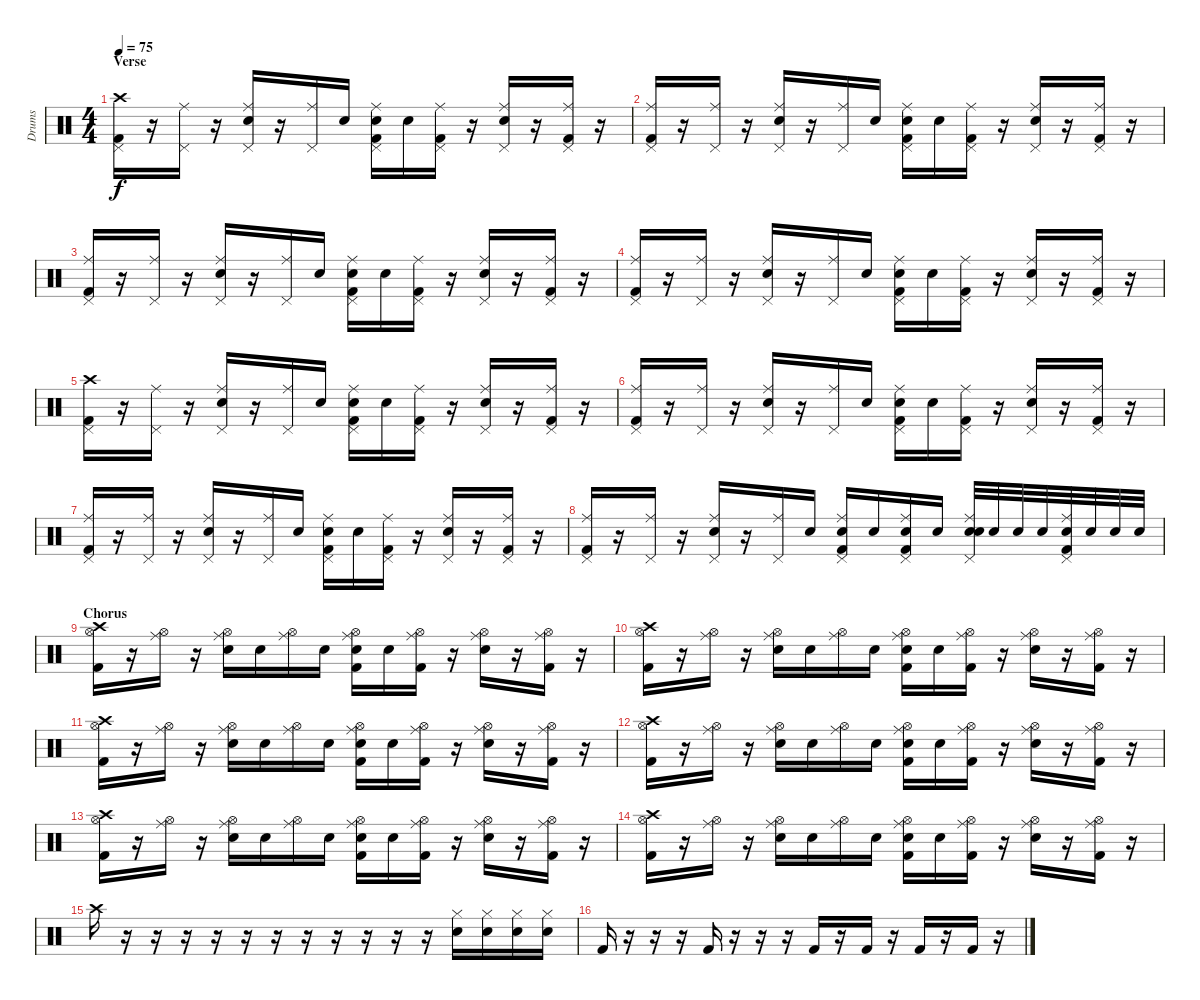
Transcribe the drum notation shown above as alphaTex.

\track ("Drums" "Drums") {instrument percussion}
\staff {score}
\articulation defaults
\ts (4 4)
\section ("" "Verse")
\tempo 75
\clef neutral
\ks c
("Crash high (hit)" "Kick (hit) 2" "Pedal Hi-Hat (hit)").16{dy f} r.16 ("Ride (middle)" "Pedal Hi-Hat (hit)").16 r.16 ("Ride (middle)" "Electric Snare (hit)" "Pedal Hi-Hat (hit)").16 r.16 ("Ride (middle)" "Pedal Hi-Hat (hit)").16 "Snare (hit) 2".16 ("Ride (middle)" "Electric Snare (hit)" "Kick (hit) 2" "Pedal Hi-Hat (hit)").16 "Electric Snare (hit)".16 ("Ride (middle)" "Kick (hit) 2" "Pedal Hi-Hat (hit)").16 r.16 ("Ride (middle)" "Electric Snare (hit)" "Pedal Hi-Hat (hit)").16 r.16 ("Ride (middle)" "Kick (hit) 2" "Pedal Hi-Hat (hit)").16 r.16 |
("Ride (middle)" "Kick (hit) 2" "Pedal Hi-Hat (hit)").16 r.16 ("Ride (middle)" "Pedal Hi-Hat (hit)").16 r.16 ("Ride (middle)" "Electric Snare (hit)" "Pedal Hi-Hat (hit)").16 r.16 ("Ride (middle)" "Pedal Hi-Hat (hit)").16 "Snare (hit) 2".16 ("Ride (middle)" "Electric Snare (hit)" "Kick (hit) 2" "Pedal Hi-Hat (hit)").16 "Electric Snare (hit)".16 ("Ride (middle)" "Kick (hit) 2" "Pedal Hi-Hat (hit)").16 r.16 ("Ride (middle)" "Electric Snare (hit)" "Pedal Hi-Hat (hit)").16 r.16 ("Ride (middle)" "Kick (hit) 2" "Pedal Hi-Hat (hit)").16 r.16 |
("Ride (middle)" "Kick (hit) 2" "Pedal Hi-Hat (hit)").16 r.16 ("Ride (middle)" "Pedal Hi-Hat (hit)").16 r.16 ("Ride (middle)" "Electric Snare (hit)" "Pedal Hi-Hat (hit)").16 r.16 ("Ride (middle)" "Pedal Hi-Hat (hit)").16 "Snare (hit) 2".16 ("Ride (middle)" "Electric Snare (hit)" "Kick (hit) 2" "Pedal Hi-Hat (hit)").16 "Electric Snare (hit)".16 ("Ride (middle)" "Kick (hit) 2" "Pedal Hi-Hat (hit)").16 r.16 ("Ride (middle)" "Electric Snare (hit)" "Pedal Hi-Hat (hit)").16 r.16 ("Ride (middle)" "Kick (hit) 2" "Pedal Hi-Hat (hit)").16 r.16 |
("Ride (middle)" "Kick (hit) 2" "Pedal Hi-Hat (hit)").16 r.16 ("Ride (middle)" "Pedal Hi-Hat (hit)").16 r.16 ("Ride (middle)" "Electric Snare (hit)" "Pedal Hi-Hat (hit)").16 r.16 ("Ride (middle)" "Pedal Hi-Hat (hit)").16 "Snare (hit) 2".16 ("Ride (middle)" "Electric Snare (hit)" "Kick (hit) 2" "Pedal Hi-Hat (hit)").16 "Electric Snare (hit)".16 ("Ride (middle)" "Kick (hit) 2" "Pedal Hi-Hat (hit)").16 r.16 ("Ride (middle)" "Electric Snare (hit)" "Pedal Hi-Hat (hit)").16 r.16 ("Ride (middle)" "Kick (hit) 2" "Pedal Hi-Hat (hit)").16 r.16 |
("Crash high (hit)" "Kick (hit) 2" "Pedal Hi-Hat (hit)").16 r.16 ("Ride (middle)" "Pedal Hi-Hat (hit)").16 r.16 ("Ride (middle)" "Electric Snare (hit)" "Pedal Hi-Hat (hit)").16 r.16 ("Ride (middle)" "Pedal Hi-Hat (hit)").16 "Snare (hit) 2".16 ("Ride (middle)" "Electric Snare (hit)" "Kick (hit) 2" "Pedal Hi-Hat (hit)").16 "Electric Snare (hit)".16 ("Ride (middle)" "Kick (hit) 2" "Pedal Hi-Hat (hit)").16 r.16 ("Ride (middle)" "Electric Snare (hit)" "Pedal Hi-Hat (hit)").16 r.16 ("Ride (middle)" "Kick (hit) 2" "Pedal Hi-Hat (hit)").16 r.16 |
("Ride (middle)" "Kick (hit) 2" "Pedal Hi-Hat (hit)").16 r.16 ("Ride (middle)" "Pedal Hi-Hat (hit)").16 r.16 ("Ride (middle)" "Electric Snare (hit)" "Pedal Hi-Hat (hit)").16 r.16 ("Ride (middle)" "Pedal Hi-Hat (hit)").16 "Snare (hit) 2".16 ("Ride (middle)" "Electric Snare (hit)" "Kick (hit) 2" "Pedal Hi-Hat (hit)").16 "Electric Snare (hit)".16 ("Ride (middle)" "Kick (hit) 2" "Pedal Hi-Hat (hit)").16 r.16 ("Ride (middle)" "Electric Snare (hit)" "Pedal Hi-Hat (hit)").16 r.16 ("Ride (middle)" "Kick (hit) 2" "Pedal Hi-Hat (hit)").16 r.16 |
("Ride (middle)" "Kick (hit) 2" "Pedal Hi-Hat (hit)").16 r.16 ("Ride (middle)" "Pedal Hi-Hat (hit)").16 r.16 ("Ride (middle)" "Electric Snare (hit)" "Pedal Hi-Hat (hit)").16 r.16 ("Ride (middle)" "Pedal Hi-Hat (hit)").16 "Snare (hit) 2".16 ("Ride (middle)" "Electric Snare (hit)" "Kick (hit) 2" "Pedal Hi-Hat (hit)").16 "Electric Snare (hit)".16 ("Ride (middle)" "Kick (hit) 2" "Pedal Hi-Hat (hit)").16 r.16 ("Ride (middle)" "Electric Snare (hit)" "Pedal Hi-Hat (hit)").16 r.16 ("Ride (middle)" "Kick (hit) 2" "Pedal Hi-Hat (hit)").16 r.16 |
("Ride (middle)" "Kick (hit) 2" "Pedal Hi-Hat (hit)").16 r.16 ("Ride (middle)" "Pedal Hi-Hat (hit)").16 r.16 ("Ride (middle)" "Electric Snare (hit)" "Pedal Hi-Hat (hit)").16 r.16 ("Ride (middle)" "Pedal Hi-Hat (hit)").16 "Snare (hit) 2".16 ("Ride (middle)" "Electric Snare (hit)" "Kick (hit) 2" "Pedal Hi-Hat (hit)").16 "Electric Snare (hit)".16 ("Ride (middle)" "Snare (hit) 2" "Kick (hit) 2" "Pedal Hi-Hat (hit)").16 "Electric Snare (hit)".16 ("Ride (middle)" "Electric Snare (hit)" "Electric Snare (hit)" "Pedal Hi-Hat (hit)").32 "Electric Snare (hit)".32 "Electric Snare (hit)".32 "Electric Snare (hit)".32 ("Ride (middle)" "Electric Snare (hit)" "Kick (hit) 2" "Pedal Hi-Hat (hit)").32 "Electric Snare (hit)".32 "Electric Snare (hit)".32 "Electric Snare (hit)".32 |
\section ("" "Chorus")
("Crash high (hit)" "Kick (hit) 2" "Hi-Hat (open)").16 r.16 ("Ride (middle)" "Hi-Hat (open)").16 r.16 ("Ride (middle)" "Electric Snare (hit)" "Hi-Hat (open)").16 "Electric Snare (hit)".16 ("Ride (middle)" "Hi-Hat (open)").16 "Snare (hit) 2".16 ("Ride (middle)" "Electric Snare (hit)" "Kick (hit) 2" "Hi-Hat (open)").16 "Electric Snare (hit)".16 ("Ride (middle)" "Kick (hit) 2" "Hi-Hat (open)").16 r.16 ("Ride (middle)" "Electric Snare (hit)" "Hi-Hat (open)").16 r.16 ("Ride (middle)" "Kick (hit) 2" "Hi-Hat (open)").16 r.16 |
("Crash high (hit)" "Kick (hit) 2" "Hi-Hat (open)").16 r.16 ("Ride (middle)" "Hi-Hat (open)").16 r.16 ("Ride (middle)" "Electric Snare (hit)" "Hi-Hat (open)").16 "Electric Snare (hit)".16 ("Ride (middle)" "Hi-Hat (open)").16 "Snare (hit) 2".16 ("Ride (middle)" "Electric Snare (hit)" "Kick (hit) 2" "Hi-Hat (open)").16 "Electric Snare (hit)".16 ("Ride (middle)" "Kick (hit) 2" "Hi-Hat (open)").16 r.16 ("Ride (middle)" "Electric Snare (hit)" "Hi-Hat (open)").16 r.16 ("Ride (middle)" "Kick (hit) 2" "Hi-Hat (open)").16 r.16 |
("Crash high (hit)" "Kick (hit) 2" "Hi-Hat (open)").16 r.16 ("Ride (middle)" "Hi-Hat (open)").16 r.16 ("Ride (middle)" "Electric Snare (hit)" "Hi-Hat (open)").16 "Electric Snare (hit)".16 ("Ride (middle)" "Hi-Hat (open)").16 "Snare (hit) 2".16 ("Ride (middle)" "Electric Snare (hit)" "Kick (hit) 2" "Hi-Hat (open)").16 "Electric Snare (hit)".16 ("Ride (middle)" "Kick (hit) 2" "Hi-Hat (open)").16 r.16 ("Ride (middle)" "Electric Snare (hit)" "Hi-Hat (open)").16 r.16 ("Ride (middle)" "Kick (hit) 2" "Hi-Hat (open)").16 r.16 |
("Crash high (hit)" "Kick (hit) 2" "Hi-Hat (open)").16 r.16 ("Ride (middle)" "Hi-Hat (open)").16 r.16 ("Ride (middle)" "Electric Snare (hit)" "Hi-Hat (open)").16 "Electric Snare (hit)".16 ("Ride (middle)" "Hi-Hat (open)").16 "Snare (hit) 2".16 ("Ride (middle)" "Electric Snare (hit)" "Kick (hit) 2" "Hi-Hat (open)").16 "Electric Snare (hit)".16 ("Ride (middle)" "Kick (hit) 2" "Hi-Hat (open)").16 r.16 ("Ride (middle)" "Electric Snare (hit)" "Hi-Hat (open)").16 r.16 ("Ride (middle)" "Kick (hit) 2" "Hi-Hat (open)").16 r.16 |
("Crash high (hit)" "Kick (hit) 2" "Hi-Hat (open)").16 r.16 ("Ride (middle)" "Hi-Hat (open)").16 r.16 ("Ride (middle)" "Electric Snare (hit)" "Hi-Hat (open)").16 "Electric Snare (hit)".16 ("Ride (middle)" "Hi-Hat (open)").16 "Snare (hit) 2".16 ("Ride (middle)" "Electric Snare (hit)" "Kick (hit) 2" "Hi-Hat (open)").16 "Electric Snare (hit)".16 ("Ride (middle)" "Kick (hit) 2" "Hi-Hat (open)").16 r.16 ("Ride (middle)" "Electric Snare (hit)" "Hi-Hat (open)").16 r.16 ("Ride (middle)" "Kick (hit) 2" "Hi-Hat (open)").16 r.16 |
("Crash high (hit)" "Kick (hit) 2" "Hi-Hat (open)").16 r.16 ("Ride (middle)" "Hi-Hat (open)").16 r.16 ("Ride (middle)" "Electric Snare (hit)" "Hi-Hat (open)").16 "Electric Snare (hit)".16 ("Ride (middle)" "Hi-Hat (open)").16 "Snare (hit) 2".16 ("Ride (middle)" "Electric Snare (hit)" "Kick (hit) 2" "Hi-Hat (open)").16 "Electric Snare (hit)".16 ("Ride (middle)" "Kick (hit) 2" "Hi-Hat (open)").16 r.16 ("Ride (middle)" "Electric Snare (hit)" "Hi-Hat (open)").16 r.16 ("Ride (middle)" "Kick (hit) 2" "Hi-Hat (open)").16 r.16 |
"Crash high (hit)".16 r.16 r.16 r.16 r.16 r.16 r.16 r.16 r.16 r.16 r.16 r.16 ("Hi-Hat (closed)" "Electric Snare (hit)").16 ("Hi-Hat (closed)" "Electric Snare (hit)").16 ("Hi-Hat (closed)" "Electric Snare (hit)").16 ("Hi-Hat (closed)" "Electric Snare (hit)").16 |
"Kick (hit) 2".16 r.16 r.16 r.16 "Kick (hit) 2".16 r.16 r.16 r.16 "Kick (hit) 2".16 r.16 "Kick (hit) 2".16 r.16 "Kick (hit) 2".16 r.16 "Kick (hit) 2".16 r.16
